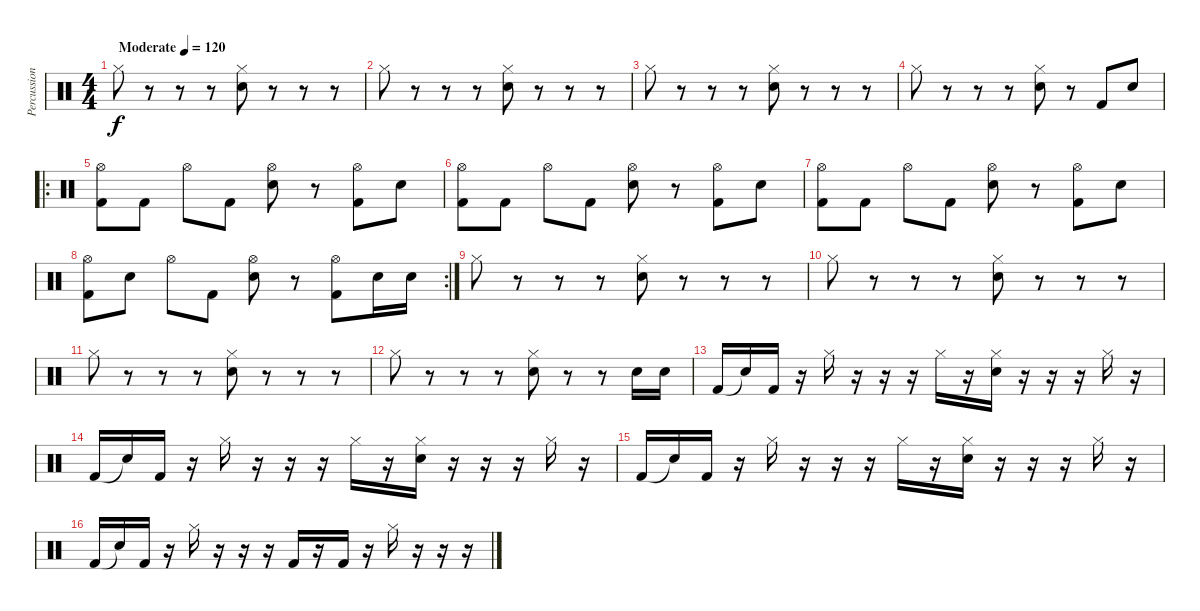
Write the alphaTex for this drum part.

\track ("Percussion" "Percussion") {instrument percussion}
\staff {score}
\articulation defaults
\ts (4 4)
\tempo (120 "Moderate")
\clef neutral
\ks c "Hi-Hat (closed)".8{dy f volume 4}
r.8 r.8 r.8 ("Hi-Hat (closed)" "Snare (hit) 2").8 r.8 r.8 r.8 |
"Hi-Hat (closed)".8 r.8 r.8 r.8 ("Hi-Hat (closed)" "Snare (hit) 2").8 r.8 r.8 r.8 |
"Hi-Hat (closed)".8 r.8 r.8 r.8 ("Hi-Hat (closed)" "Snare (hit) 2").8 r.8 r.8 r.8 |
"Hi-Hat (closed)".8 r.8 r.8 r.8 ("Hi-Hat (closed)" "Snare (hit) 2").8 r.8 "Kick (hit) 2".8{volume 12} "Snare (hit) 2".8 |
\ro
("Hi-Hat (open)" "Kick (hit) 2").8{volume 12} "Kick (hit) 2".8 "Hi-Hat (open)".8 "Kick (hit) 2".8 ("Hi-Hat (open)" "Snare (hit) 2").8 r.8 ("Hi-Hat (open)" "Kick (hit) 2").8 "Snare (hit) 2".8 |
("Hi-Hat (open)" "Kick (hit) 2").8 "Kick (hit) 2".8 "Hi-Hat (open)".8 "Kick (hit) 2".8 ("Hi-Hat (open)" "Snare (hit) 2").8 r.8 ("Hi-Hat (open)" "Kick (hit) 2").8 "Snare (hit) 2".8 |
("Hi-Hat (open)" "Kick (hit) 2").8 "Kick (hit) 2".8 "Hi-Hat (open)".8 "Kick (hit) 2".8 ("Hi-Hat (open)" "Snare (hit) 2").8 r.8 ("Hi-Hat (open)" "Kick (hit) 2").8 "Snare (hit) 2".8 |
\rc 2
("Hi-Hat (open)" "Kick (hit) 2").8 "Snare (hit) 2".8 "Hi-Hat (open)".8 "Kick (hit) 2".8 ("Hi-Hat (open)" "Snare (hit) 2").8 r.8 ("Hi-Hat (open)" "Kick (hit) 2").8 "Snare (hit) 2".16 "Snare (hit) 2".16 |
"Hi-Hat (closed)".8{volume 8} r.8 r.8 r.8 ("Hi-Hat (closed)" "Snare (hit) 2").8 r.8 r.8 r.8 |
"Hi-Hat (closed)".8 r.8 r.8 r.8 ("Hi-Hat (closed)" "Snare (hit) 2").8 r.8 r.8 r.8 |
"Hi-Hat (closed)".8 r.8 r.8 r.8 ("Hi-Hat (closed)" "Snare (hit) 2").8 r.8 r.8 r.8 |
"Hi-Hat (closed)".8 r.8 r.8 r.8 ("Hi-Hat (closed)" "Snare (hit) 2").8 r.8 r.8 "Snare (hit) 2".16 "Snare (hit) 2".16 |
"Kick (hit) 2".16{volume 16} "Snare (hit)"{t}.16 "Kick (hit) 2".16 r.16 "Hi-Hat (closed)".16 r.16 r.16 r.16 "Hi-Hat (closed)".16 r.16 ("Hi-Hat (closed)" "Snare (hit) 2").16 r.16 r.16 r.16 "Hi-Hat (closed)".16 r.16 |
"Kick (hit) 2".16{volume 16} "Snare (hit)"{t}.16 "Kick (hit) 2".16 r.16 "Hi-Hat (closed)".16 r.16 r.16 r.16 "Hi-Hat (closed)".16 r.16 ("Hi-Hat (closed)" "Snare (hit) 2").16 r.16 r.16 r.16 "Hi-Hat (closed)".16 r.16 |
"Kick (hit) 2".16{volume 16} "Snare (hit)"{t}.16 "Kick (hit) 2".16 r.16 "Hi-Hat (closed)".16 r.16 r.16 r.16 "Hi-Hat (closed)".16 r.16 ("Hi-Hat (closed)" "Snare (hit) 2").16 r.16 r.16 r.16 "Hi-Hat (closed)".16 r.16 |
"Kick (hit) 2".16{volume 16} "Snare (hit)"{t}.16 "Kick (hit) 2".16 r.16 "Hi-Hat (closed)".16 r.16 r.16 r.16 "Kick (hit) 2".16 r.16 "Kick (hit) 2".16 r.16 "Hi-Hat (closed)".16 r.16 r.16 r.16
